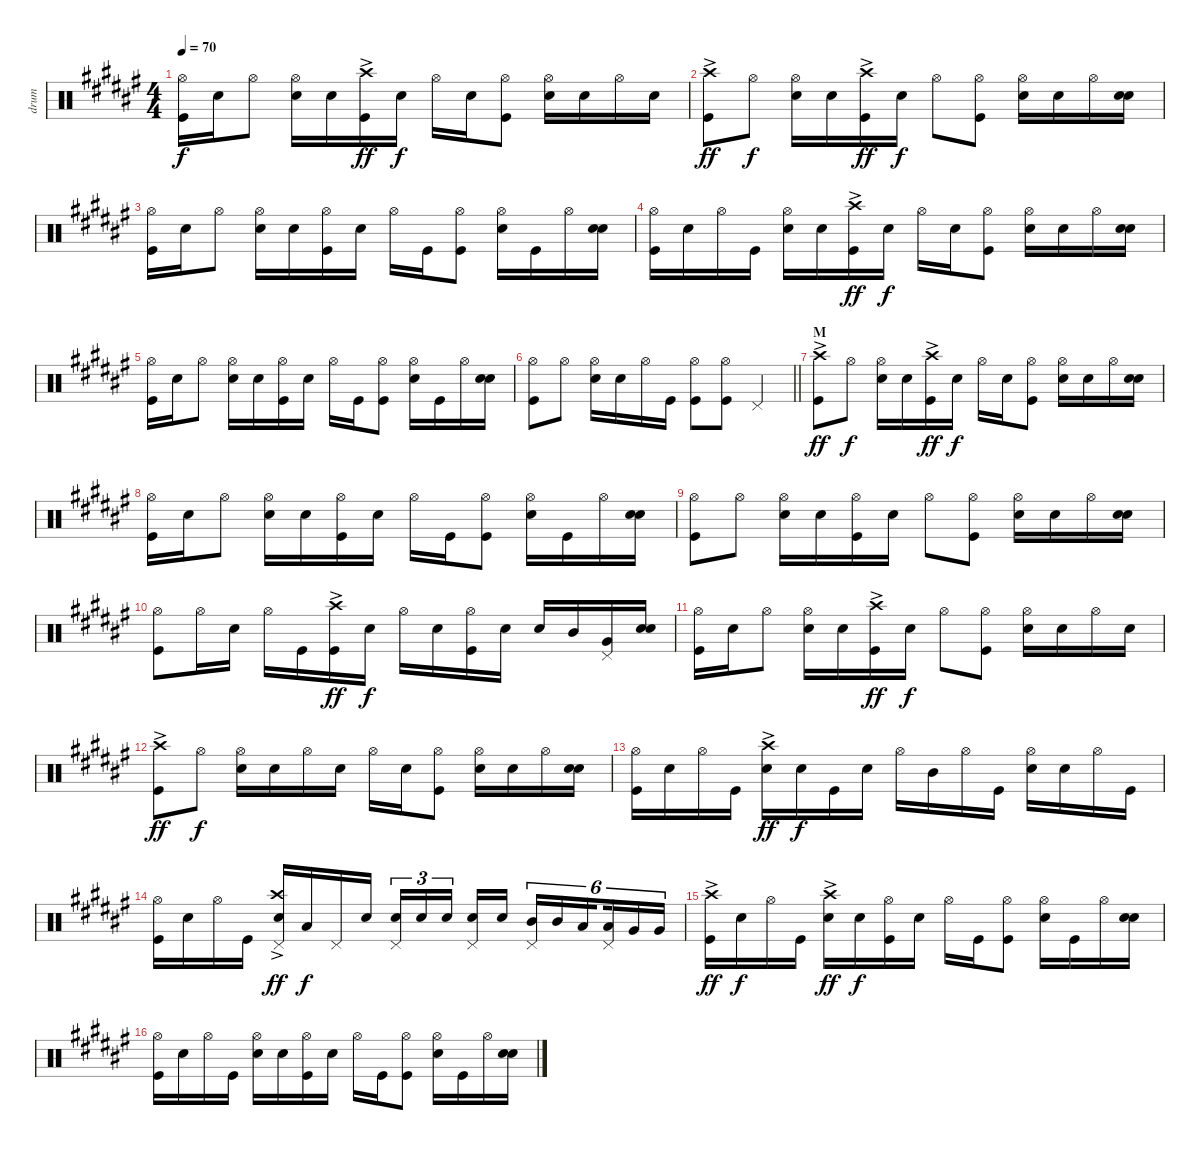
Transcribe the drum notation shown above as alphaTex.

\track ("drum" "drum") {instrument percussion}
\staff {score}
\articulation defaults
\ts (4 4)
\tempo 70
\clef neutral
\ks f#
("Hi-Hat (open)" "Kick (hit)").16{dy f} "Snare (hit) 2".16 "Hi-Hat (open)".8 ("Hi-Hat (open)" "Snare (hit) 2").16 "Snare (hit) 2".16 ("Crash high (hit)"{ac} "Kick (hit)").16{dy ff} "Snare (hit) 2".16{dy f} "Hi-Hat (open)".16 "Snare (hit) 2".16 ("Hi-Hat (open)" "Kick (hit)").8 ("Hi-Hat (open)" "Snare (hit) 2").16 "Snare (hit) 2".16 "Hi-Hat (open)".16 "Snare (hit) 2".16 |
("Crash high (hit)"{ac} "Kick (hit)").8{dy ff} "Hi-Hat (open)".8{dy f} ("Hi-Hat (open)" "Snare (hit) 2").16 "Snare (hit) 2".16 ("Crash high (hit)"{ac} "Kick (hit)").16{dy ff} "Snare (hit) 2".16{dy f} "Hi-Hat (open)".8 ("Hi-Hat (open)" "Kick (hit)").8 ("Hi-Hat (open)" "Snare (hit) 2").16 "Snare (hit) 2".16 "Hi-Hat (open)".16 ("Snare (hit) 2" "Snare (hit) 2").16 |
("Hi-Hat (open)" "Kick (hit)").16 "Snare (hit) 2".16 "Hi-Hat (open)".8 ("Hi-Hat (open)" "Snare (hit) 2").16 "Snare (hit) 2".16 ("Hi-Hat (open)" "Kick (hit)").16 "Snare (hit) 2".16 "Hi-Hat (open)".16 "Kick (hit)".16 ("Hi-Hat (open)" "Kick (hit)").8 ("Hi-Hat (open)" "Snare (hit) 2").16 "Kick (hit)".16 "Hi-Hat (open)".16 ("Snare (hit) 2" "Snare (hit) 2").16 |
("Hi-Hat (open)" "Kick (hit)").16 "Snare (hit) 2".16 "Hi-Hat (open)".16 "Kick (hit)".16 ("Hi-Hat (open)" "Snare (hit) 2").16 "Snare (hit) 2".16 ("Crash high (hit)"{ac} "Kick (hit)").16{dy ff} "Snare (hit) 2".16{dy f} "Hi-Hat (open)".16 "Snare (hit) 2".16 ("Hi-Hat (open)" "Kick (hit)").8 ("Hi-Hat (open)" "Snare (hit) 2").16 "Snare (hit) 2".16 "Hi-Hat (open)".16 ("Snare (hit) 2" "Snare (hit) 2").16 |
("Hi-Hat (open)" "Kick (hit)").16 "Snare (hit) 2".16 "Hi-Hat (open)".8 ("Hi-Hat (open)" "Snare (hit) 2").16 "Snare (hit) 2".16 ("Hi-Hat (open)" "Kick (hit)").16 "Snare (hit) 2".16 "Hi-Hat (open)".16 "Kick (hit)".16 ("Hi-Hat (open)" "Kick (hit)").8 ("Hi-Hat (open)" "Snare (hit) 2").16 "Kick (hit)".16 "Hi-Hat (open)".16 ("Snare (hit) 2" "Snare (hit) 2").16 |
\barLineRight lightlight
("Hi-Hat (open)" "Kick (hit)").8 "Hi-Hat (open)".8 ("Snare (hit) 2" "Hi-Hat (open)").16 "Snare (hit) 2".16 "Hi-Hat (open)".16 "Kick (hit)".16 ("Hi-Hat (open)" "Kick (hit)").8 ("Hi-Hat (open)" "Kick (hit)").8 "Pedal Hi-Hat (hit)".4 |
\section ("" "M")
("Crash high (hit)"{ac} "Kick (hit)").8{dy ff} "Hi-Hat (open)".8{dy f} ("Hi-Hat (open)" "Snare (hit) 2").16 "Snare (hit) 2".16 ("Crash high (hit)"{ac} "Kick (hit)").16{dy ff} "Snare (hit) 2".16{dy f} "Hi-Hat (open)".16 "Snare (hit) 2".16 ("Hi-Hat (open)" "Kick (hit)").8 ("Hi-Hat (open)" "Snare (hit) 2").16 "Snare (hit) 2".16 "Hi-Hat (open)".16 ("Snare (hit) 2" "Snare (hit) 2").16 |
("Hi-Hat (open)" "Kick (hit)").16 "Snare (hit) 2".16 "Hi-Hat (open)".8 ("Hi-Hat (open)" "Snare (hit) 2").16 "Snare (hit) 2".16 ("Hi-Hat (open)" "Kick (hit)").16 "Snare (hit) 2".16 "Hi-Hat (open)".16 "Kick (hit)".16 ("Hi-Hat (open)" "Kick (hit)").8 ("Hi-Hat (open)" "Snare (hit) 2").16 "Kick (hit)".16 "Hi-Hat (open)".16 ("Snare (hit) 2" "Snare (hit) 2").16 |
("Hi-Hat (open)" "Kick (hit)").8 "Hi-Hat (open)".8 ("Hi-Hat (open)" "Snare (hit) 2").16 "Snare (hit) 2".16 ("Hi-Hat (open)" "Kick (hit)").16 "Snare (hit) 2".16 "Hi-Hat (open)".8 ("Hi-Hat (open)" "Kick (hit)").8 ("Hi-Hat (open)" "Snare (hit) 2").16 "Snare (hit) 2".16 "Hi-Hat (open)".16 ("Snare (hit) 2" "Snare (hit) 2").16 |
("Hi-Hat (open)" "Kick (hit)").8 "Hi-Hat (open)".16 "Snare (hit) 2".16 "Hi-Hat (open)".16 "Kick (hit)".16 ("Crash high (hit)"{ac} "Kick (hit)").16{dy ff} "Snare (hit) 2".16{dy f} "Hi-Hat (open)".16 "Snare (hit) 2".16 ("Hi-Hat (open)" "Kick (hit)").16 "Snare (hit) 2".16 "Snare (hit) 2".16 "Mid Tom (hit)".16 ("Very Low Tom (hit)" "Pedal Hi-Hat (hit)").16 ("Snare (hit) 2" "Snare (hit) 2").16 |
("Hi-Hat (open)" "Kick (hit)").16 "Snare (hit) 2".16 "Hi-Hat (open)".8 ("Hi-Hat (open)" "Snare (hit) 2").16 "Snare (hit) 2".16 ("Crash high (hit)"{ac} "Kick (hit)").16{dy ff} "Snare (hit) 2".16{dy f} "Hi-Hat (open)".8 ("Hi-Hat (open)" "Kick (hit)").8 ("Hi-Hat (open)" "Snare (hit) 2").16 "Snare (hit) 2".16 "Hi-Hat (open)".16 "Snare (hit) 2".16 |
("Crash high (hit)"{ac} "Kick (hit)").8{dy ff} "Hi-Hat (open)".8{dy f} ("Hi-Hat (open)" "Snare (hit) 2").16 "Snare (hit) 2".16 "Hi-Hat (open)".16 "Snare (hit) 2".16 "Hi-Hat (open)".16 "Snare (hit) 2".16 ("Hi-Hat (open)" "Kick (hit)").8 ("Hi-Hat (open)" "Snare (hit) 2").16 "Snare (hit) 2".16 "Hi-Hat (open)".16 ("Snare (hit) 2" "Snare (hit) 2").16 |
("Hi-Hat (open)" "Kick (hit)").16 "Snare (hit) 2".16 "Hi-Hat (open)".16 "Kick (hit)".16 ("Crash high (hit)"{ac} "Snare (hit) 2").16{dy ff} "Snare (hit) 2".16{dy f} "Kick (hit)".16 "Snare (hit) 2".16 "Hi-Hat (open)".16 "Mid Tom (hit)".16 "Hi-Hat (open)".16 "Kick (hit)".16 ("Hi-Hat (open)" "Snare (hit) 2").16 "Snare (hit) 2".16 "Hi-Hat (open)".16 "Kick (hit)".16 |
("Hi-Hat (open)" "Kick (hit)").16 "Snare (hit) 2".16 "Hi-Hat (open)".16 "Kick (hit)".16 ("Crash high (hit)"{ac} "Snare (hit) 2" "Pedal Hi-Hat (hit)").16{dy ff} "Low Tom (hit)".16{dy f} "Pedal Hi-Hat (hit)".16 "Snare (hit) 2".16 ("Snare (hit) 2" "Pedal Hi-Hat (hit)").16{tu (3 2)} "Snare (hit) 2".16{tu (3 2)} "Snare (hit) 2".16{tu (3 2) beam splitsecondary} ("Snare (hit) 2" "Pedal Hi-Hat (hit)").16 "Snare (hit) 2".16 ("Mid Tom (hit)" "Pedal Hi-Hat (hit)").16{tu (6 4)} "Mid Tom (hit)".16{tu (6 4)} "Low Tom (hit)".16{tu (6 4) beam splitsecondary} ("Low Tom (hit)" "Pedal Hi-Hat (hit)").16{tu (6 4)} "Very Low Tom (hit)".16{tu (6 4)} "Very Low Tom (hit)".16{tu (6 4)} |
("Crash high (hit)"{ac} "Kick (hit)").16{dy ff} "Snare (hit) 2".16{dy f} "Hi-Hat (open)".16 "Kick (hit)".16 ("Snare (hit) 2" "Crash high (hit)"{ac}).16{dy ff} "Snare (hit) 2".16{dy f} ("Hi-Hat (open)" "Kick (hit)").16 "Snare (hit) 2".16 "Hi-Hat (open)".16 "Kick (hit)".16 ("Hi-Hat (open)" "Kick (hit)").8 ("Hi-Hat (open)" "Snare (hit) 2").16 "Kick (hit)".16 "Hi-Hat (open)".16 ("Snare (hit) 2" "Snare (hit) 2").16 |
("Hi-Hat (open)" "Kick (hit)").16 "Snare (hit) 2".16 "Hi-Hat (open)".16 "Kick (hit)".16 ("Hi-Hat (open)" "Snare (hit) 2").16 "Snare (hit) 2".16 ("Hi-Hat (open)" "Kick (hit)").16 "Snare (hit) 2".16 "Hi-Hat (open)".16 "Kick (hit)".16 ("Hi-Hat (open)" "Kick (hit)").8 ("Hi-Hat (open)" "Snare (hit) 2").16 "Kick (hit)".16 "Hi-Hat (open)".16 ("Snare (hit) 2" "Snare (hit) 2").16
